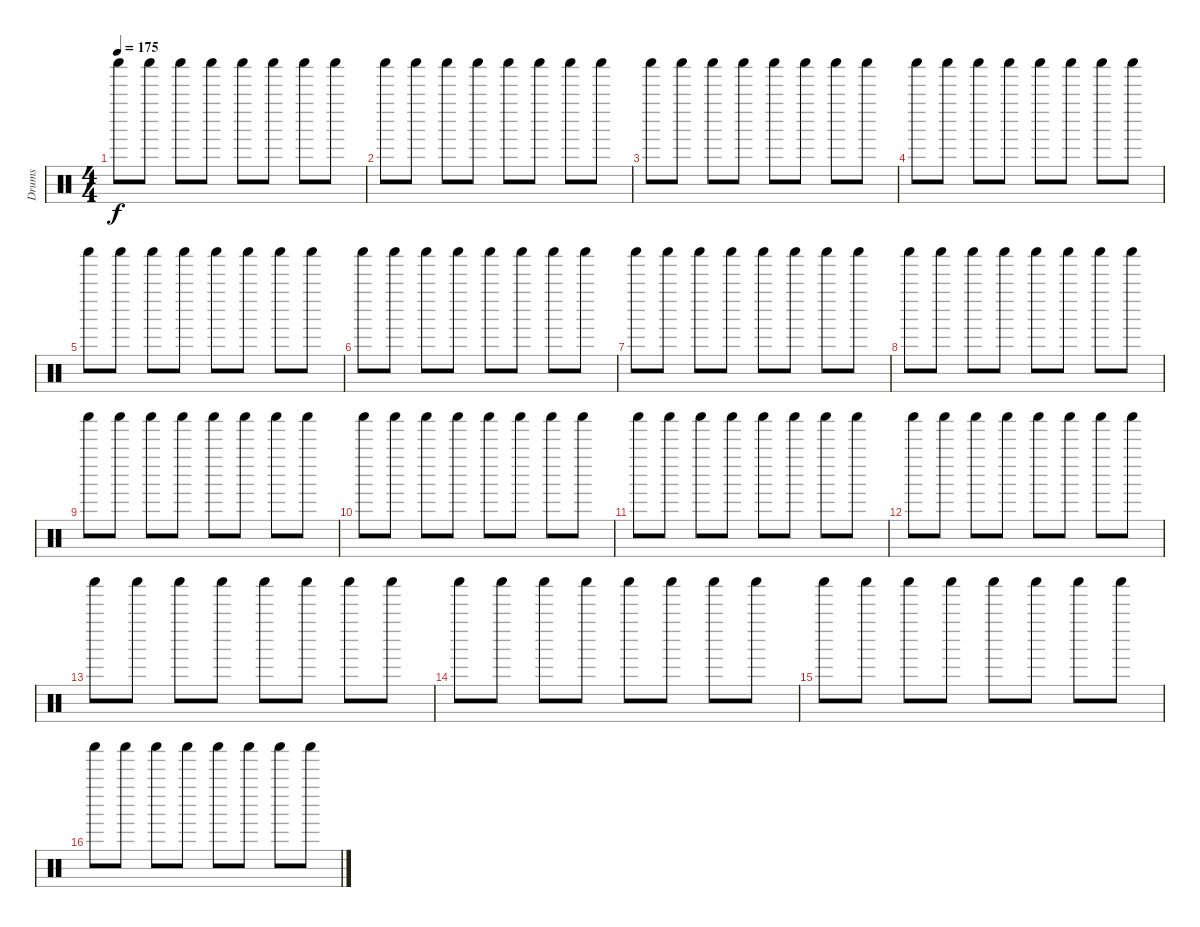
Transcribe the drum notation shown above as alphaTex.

\track ("Drums" "Drums") {instrument percussion}
\staff {score}
\articulation defaults
\ts (4 4)
\tempo 175
\clef neutral
\ks c "Shaker (hit)".8{dy f} "Shaker (hit)".8 "Shaker (hit)".8 "Shaker (hit)".8 "Shaker (hit)".8 "Shaker (hit)".8 "Shaker (hit)".8 "Shaker (hit)".8
|
"Shaker (hit)".8 "Shaker (hit)".8 "Shaker (hit)".8 "Shaker (hit)".8 "Shaker (hit)".8 "Shaker (hit)".8 "Shaker (hit)".8 "Shaker (hit)".8 |
"Shaker (hit)".8 "Shaker (hit)".8 "Shaker (hit)".8 "Shaker (hit)".8 "Shaker (hit)".8 "Shaker (hit)".8 "Shaker (hit)".8 "Shaker (hit)".8 |
"Shaker (hit)".8 "Shaker (hit)".8 "Shaker (hit)".8 "Shaker (hit)".8 "Shaker (hit)".8 "Shaker (hit)".8 "Shaker (hit)".8 "Shaker (hit)".8 |
"Shaker (hit)".8 "Shaker (hit)".8 "Shaker (hit)".8 "Shaker (hit)".8 "Shaker (hit)".8 "Shaker (hit)".8 "Shaker (hit)".8 "Shaker (hit)".8 |
"Shaker (hit)".8 "Shaker (hit)".8 "Shaker (hit)".8 "Shaker (hit)".8 "Shaker (hit)".8 "Shaker (hit)".8 "Shaker (hit)".8 "Shaker (hit)".8 |
"Shaker (hit)".8 "Shaker (hit)".8 "Shaker (hit)".8 "Shaker (hit)".8 "Shaker (hit)".8 "Shaker (hit)".8 "Shaker (hit)".8 "Shaker (hit)".8 |
"Shaker (hit)".8 "Shaker (hit)".8 "Shaker (hit)".8 "Shaker (hit)".8 "Shaker (hit)".8 "Shaker (hit)".8 "Shaker (hit)".8 "Shaker (hit)".8 |
"Shaker (hit)".8 "Shaker (hit)".8 "Shaker (hit)".8 "Shaker (hit)".8 "Shaker (hit)".8 "Shaker (hit)".8 "Shaker (hit)".8 "Shaker (hit)".8 |
"Shaker (hit)".8 "Shaker (hit)".8 "Shaker (hit)".8 "Shaker (hit)".8 "Shaker (hit)".8 "Shaker (hit)".8 "Shaker (hit)".8 "Shaker (hit)".8 |
"Shaker (hit)".8 "Shaker (hit)".8 "Shaker (hit)".8 "Shaker (hit)".8 "Shaker (hit)".8 "Shaker (hit)".8 "Shaker (hit)".8 "Shaker (hit)".8 |
"Shaker (hit)".8 "Shaker (hit)".8 "Shaker (hit)".8 "Shaker (hit)".8 "Shaker (hit)".8 "Shaker (hit)".8 "Shaker (hit)".8 "Shaker (hit)".8 |
"Shaker (hit)".8 "Shaker (hit)".8 "Shaker (hit)".8 "Shaker (hit)".8 "Shaker (hit)".8 "Shaker (hit)".8 "Shaker (hit)".8 "Shaker (hit)".8 |
"Shaker (hit)".8 "Shaker (hit)".8 "Shaker (hit)".8 "Shaker (hit)".8 "Shaker (hit)".8 "Shaker (hit)".8 "Shaker (hit)".8 "Shaker (hit)".8 |
"Shaker (hit)".8 "Shaker (hit)".8 "Shaker (hit)".8 "Shaker (hit)".8 "Shaker (hit)".8 "Shaker (hit)".8 "Shaker (hit)".8 "Shaker (hit)".8 |
"Shaker (hit)".8 "Shaker (hit)".8 "Shaker (hit)".8 "Shaker (hit)".8 "Shaker (hit)".8 "Shaker (hit)".8 "Shaker (hit)".8 "Shaker (hit)".8
